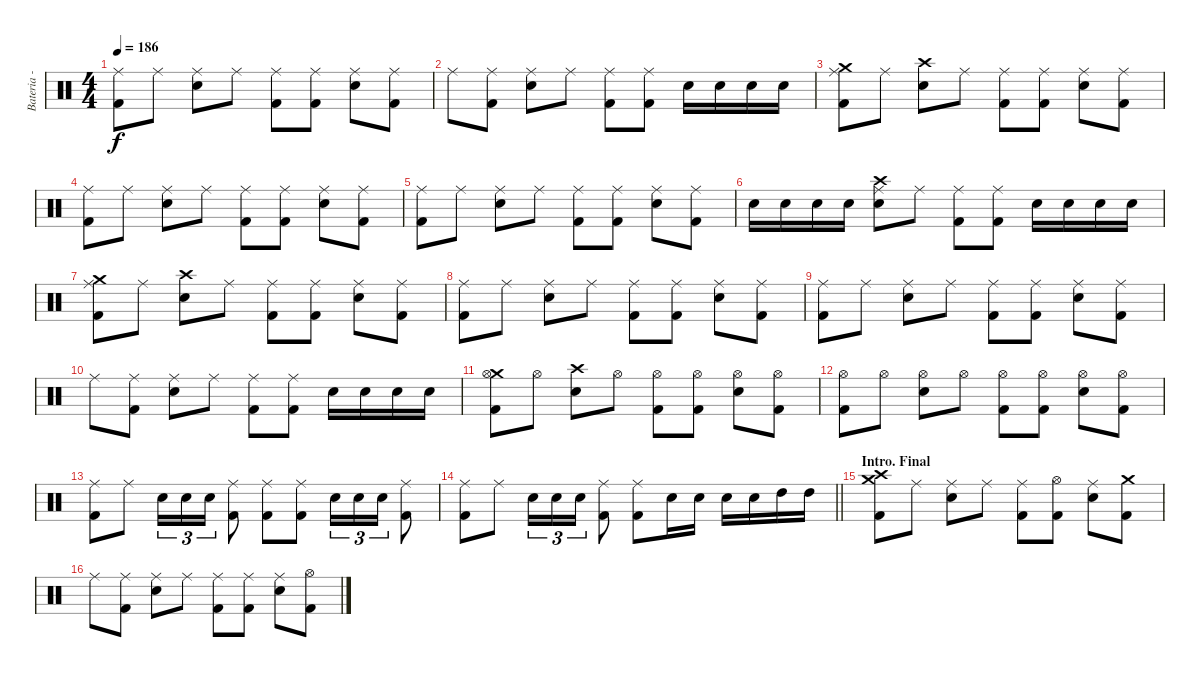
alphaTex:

\track ("Bateria - Larzon" "Bateria - ") {instrument percussion}
\staff {score}
\articulation defaults
\ts (4 4)
\tempo 186
\clef neutral
\ks c
("Kick (hit) 2" "Ride (middle)").8{dy f} "Ride (middle)".8 ("Snare (hit) 2" "Ride (middle)").8 "Ride (middle)".8 ("Kick (hit) 2" "Ride (middle)").8 ("Kick (hit) 2" "Ride (middle)").8 ("Snare (hit) 2" "Ride (middle)").8 ("Kick (hit) 2" "Ride (middle)").8 |
"Ride (middle)".8 ("Kick (hit) 2" "Ride (middle)").8 ("Snare (hit) 2" "Ride (middle)").8 "Ride (middle)".8 ("Kick (hit) 2" "Ride (middle)").8 ("Kick (hit) 2" "Ride (middle)").8 "Snare (hit) 2".16 "Snare (hit) 2".16 "Snare (hit) 2".16 "Snare (hit) 2".16 |
("Kick (hit) 2" "Crash medium (hit)" "Ride (middle)").8 "Ride (middle)".8 ("Snare (hit) 2" "Crash high (hit)").8 "Ride (middle)".8 ("Kick (hit) 2" "Ride (middle)").8 ("Kick (hit) 2" "Ride (middle)").8 ("Snare (hit) 2" "Ride (middle)").8 ("Kick (hit) 2" "Ride (middle)").8 |
("Kick (hit) 2" "Ride (middle)").8 "Ride (middle)".8 ("Snare (hit) 2" "Ride (middle)").8 "Ride (middle)".8 ("Kick (hit) 2" "Ride (middle)").8 ("Kick (hit) 2" "Ride (middle)").8 ("Snare (hit) 2" "Ride (middle)").8 ("Kick (hit) 2" "Ride (middle)").8 |
("Kick (hit) 2" "Ride (middle)").8 "Ride (middle)".8 ("Snare (hit) 2" "Ride (middle)").8 "Ride (middle)".8 ("Kick (hit) 2" "Ride (middle)").8 ("Kick (hit) 2" "Ride (middle)").8 ("Snare (hit) 2" "Ride (middle)").8 ("Kick (hit) 2" "Ride (middle)").8 |
"Snare (hit) 2".16 "Snare (hit) 2".16 "Snare (hit) 2".16 "Snare (hit) 2".16 ("Crash high (hit)" "Snare (hit) 2" "Ride (middle)").8 "Ride (middle)".8 ("Kick (hit) 2" "Ride (middle)").8 ("Kick (hit) 2" "Ride (middle)").8 "Snare (hit) 2".16 "Snare (hit) 2".16 "Snare (hit) 2".16 "Snare (hit) 2".16 |
("Kick (hit) 2" "Crash medium (hit)" "Ride (middle)").8 "Ride (middle)".8 ("Snare (hit) 2" "Crash high (hit)").8 "Ride (middle)".8 ("Kick (hit) 2" "Ride (middle)").8 ("Kick (hit) 2" "Ride (middle)").8 ("Snare (hit) 2" "Ride (middle)").8 ("Kick (hit) 2" "Ride (middle)").8 |
("Kick (hit) 2" "Ride (middle)").8 "Ride (middle)".8 ("Snare (hit) 2" "Ride (middle)").8 "Ride (middle)".8 ("Kick (hit) 2" "Ride (middle)").8 ("Kick (hit) 2" "Ride (middle)").8 ("Snare (hit) 2" "Ride (middle)").8 ("Kick (hit) 2" "Ride (middle)").8 |
("Kick (hit) 2" "Ride (middle)").8 "Ride (middle)".8 ("Snare (hit) 2" "Ride (middle)").8 "Ride (middle)".8 ("Kick (hit) 2" "Ride (middle)").8 ("Kick (hit) 2" "Ride (middle)").8 ("Snare (hit) 2" "Ride (middle)").8 ("Kick (hit) 2" "Ride (middle)").8 |
"Ride (middle)".8 ("Kick (hit) 2" "Ride (middle)").8 ("Snare (hit) 2" "Ride (middle)").8 "Ride (middle)".8 ("Kick (hit) 2" "Ride (middle)").8 ("Kick (hit) 2" "Ride (middle)").8 "Snare (hit) 2".16 "Snare (hit) 2".16 "Snare (hit) 2".16 "Snare (hit) 2".16 |
("Kick (hit) 2" "Crash medium (hit)" "Hi-Hat (open)").8 "Hi-Hat (open)".8 ("Snare (hit) 2" "Crash high (hit)").8 "Hi-Hat (open)".8 ("Kick (hit) 2" "Hi-Hat (open)").8 ("Kick (hit) 2" "Hi-Hat (open)").8 ("Snare (hit) 2" "Hi-Hat (open)").8 ("Kick (hit) 2" "Hi-Hat (open)").8 |
("Kick (hit) 2" "Hi-Hat (open)").8 "Hi-Hat (open)".8 ("Snare (hit) 2" "Hi-Hat (open)").8 "Hi-Hat (open)".8 ("Kick (hit) 2" "Hi-Hat (open)").8 ("Kick (hit) 2" "Hi-Hat (open)").8 ("Snare (hit) 2" "Hi-Hat (open)").8 ("Kick (hit) 2" "Hi-Hat (open)").8 |
("Kick (hit) 2" "Ride (middle)").8 "Ride (middle)".8 "Snare (hit) 2".16{tu (3 2)} "Snare (hit) 2".16{tu (3 2)} "Snare (hit) 2".16{tu (3 2)} ("Kick (hit) 2" "Ride (middle)").8 ("Kick (hit) 2" "Ride (middle)").8 ("Kick (hit) 2" "Ride (middle)").8 "Snare (hit) 2".16{tu (3 2)} "Snare (hit) 2".16{tu (3 2)} "Snare (hit) 2".16{tu (3 2)} ("Kick (hit) 2" "Ride (middle)").8 |
\barLineRight lightlight
("Kick (hit) 2" "Ride (middle)").8 "Ride (middle)".8 "Snare (hit) 2".16{tu (3 2)} "Snare (hit) 2".16{tu (3 2)} "Snare (hit) 2".16{tu (3 2)} ("Kick (hit) 2" "Ride (middle)").8 ("Kick (hit) 2" "Ride (middle)").8 "Snare (hit) 2".16 "Snare (hit) 2".16 "Snare (hit) 2".16 "Snare (hit) 2".16 "High Tom (hit)".16 "High Tom (hit)".16 |
\section ("" "Intro. Final")
("Kick (hit) 2" "Crash medium (hit)" "Crash high (hit)").8 "Ride (middle)".8 ("Snare (hit) 2" "Ride (middle)").8 "Ride (middle)".8 ("Kick (hit) 2" "Ride (middle)").8 ("Kick (hit) 2" "Hi-Hat (open)").8 ("Snare (hit) 2" "Ride (middle)").8 ("Kick (hit) 2" "Crash medium (hit)").8 |
"Ride (middle)".8 ("Kick (hit) 2" "Ride (middle)").8 ("Snare (hit) 2" "Ride (middle)").8 "Ride (middle)".8 ("Kick (hit) 2" "Ride (middle)").8 ("Kick (hit) 2" "Ride (middle)").8 ("Snare (hit) 2" "Ride (middle)").8 ("Kick (hit) 2" "Hi-Hat (open)").8
